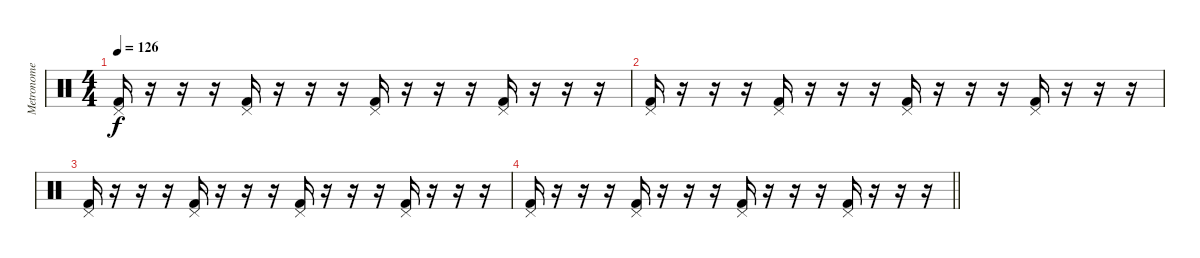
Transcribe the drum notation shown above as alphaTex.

\track ("Metronome" "Metronome") {mute instrument percussion}
\staff {score}
\articulation defaults
\ts (4 4)
\tempo 126
\clef neutral
\ks c
("Pedal Hi-Hat (hit)" "Kick (hit) 2").16{dy f} r.16 r.16 r.16 ("Pedal Hi-Hat (hit)" "Kick (hit) 2").16 r.16 r.16 r.16 ("Pedal Hi-Hat (hit)" "Kick (hit) 2").16 r.16 r.16 r.16 ("Pedal Hi-Hat (hit)" "Kick (hit) 2").16 r.16 r.16 r.16 |
("Pedal Hi-Hat (hit)" "Kick (hit) 2").16 r.16 r.16 r.16 ("Pedal Hi-Hat (hit)" "Kick (hit) 2").16 r.16 r.16 r.16 ("Pedal Hi-Hat (hit)" "Kick (hit) 2").16 r.16 r.16 r.16 ("Pedal Hi-Hat (hit)" "Kick (hit) 2").16 r.16 r.16 r.16 |
("Pedal Hi-Hat (hit)" "Kick (hit) 2").16 r.16 r.16 r.16 ("Pedal Hi-Hat (hit)" "Kick (hit) 2").16 r.16 r.16 r.16 ("Pedal Hi-Hat (hit)" "Kick (hit) 2").16 r.16 r.16 r.16 ("Pedal Hi-Hat (hit)" "Kick (hit) 2").16 r.16 r.16 r.16 |
\barLineRight lightlight
("Pedal Hi-Hat (hit)" "Kick (hit) 2").16 r.16 r.16 r.16 ("Pedal Hi-Hat (hit)" "Kick (hit) 2").16 r.16 r.16 r.16 ("Pedal Hi-Hat (hit)" "Kick (hit) 2").16 r.16 r.16 r.16 ("Pedal Hi-Hat (hit)" "Kick (hit) 2").16 r.16 r.16 r.16
